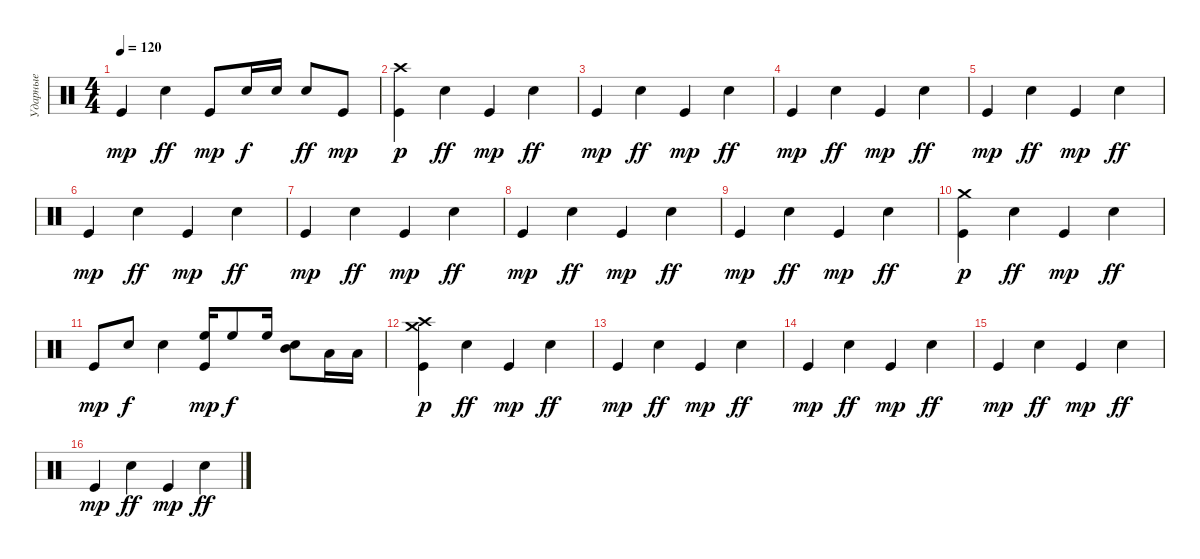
\track ("Ударные" "Ударные") {instrument percussion}
\staff {score}
\articulation defaults
\ts (4 4)
\tempo 120
\clef neutral
\ks c "Kick (hit)".4{dy mp} "Snare (hit) 2".4{dy ff} "Kick (hit)".8{dy mp} "Snare (hit) 2".16{dy f} "Snare (hit) 2".16 "Snare (hit) 2".8{dy ff} "Kick (hit)".8{dy mp}
|
("Kick (hit)" "Crash high (hit)").4{dy p} "Snare (hit) 2".4{dy ff} "Kick (hit)".4{dy mp} "Snare (hit) 2".4{dy ff} |
"Kick (hit)".4{dy mp} "Snare (hit) 2".4{dy ff} "Kick (hit)".4{dy mp} "Snare (hit) 2".4{dy ff} |
"Kick (hit)".4{dy mp} "Snare (hit) 2".4{dy ff} "Kick (hit)".4{dy mp} "Snare (hit) 2".4{dy ff} |
"Kick (hit)".4{dy mp} "Snare (hit) 2".4{dy ff} "Kick (hit)".4{dy mp} "Snare (hit) 2".4{dy ff} |
"Kick (hit)".4{dy mp} "Snare (hit) 2".4{dy ff} "Kick (hit)".4{dy mp} "Snare (hit) 2".4{dy ff} |
"Kick (hit)".4{dy mp} "Snare (hit) 2".4{dy ff} "Kick (hit)".4{dy mp} "Snare (hit) 2".4{dy ff} |
"Kick (hit)".4{dy mp} "Snare (hit) 2".4{dy ff} "Kick (hit)".4{dy mp} "Snare (hit) 2".4{dy ff} |
"Kick (hit)".4{dy mp} "Snare (hit) 2".4{dy ff} "Kick (hit)".4{dy mp} "Snare (hit) 2".4{dy ff} |
("Kick (hit)" "Crash medium (hit)").4{dy p} "Snare (hit) 2".4{dy ff} "Kick (hit)".4{dy mp} "Snare (hit) 2".4{dy ff} |
"Kick (hit)".8{dy mp} "Snare (hit) 2".8{dy f} "Snare (hit) 2".4 ("High Floor Tom (hit)" "Kick (hit)").16{dy mp} "High Floor Tom (hit)".8{dy f} "High Floor Tom (hit)".16 ("Mid Tom (hit)" "Snare (hit) 2").8 "Low Tom (hit)".16 "Low Tom (hit)".16 |
("Kick (hit)" "Crash high (hit)" "Crash medium (hit)").4{dy p} "Snare (hit) 2".4{dy ff} "Kick (hit)".4{dy mp} "Snare (hit) 2".4{dy ff} |
"Kick (hit)".4{dy mp} "Snare (hit) 2".4{dy ff} "Kick (hit)".4{dy mp} "Snare (hit) 2".4{dy ff} |
"Kick (hit)".4{dy mp} "Snare (hit) 2".4{dy ff} "Kick (hit)".4{dy mp} "Snare (hit) 2".4{dy ff} |
"Kick (hit)".4{dy mp} "Snare (hit) 2".4{dy ff} "Kick (hit)".4{dy mp} "Snare (hit) 2".4{dy ff} |
"Kick (hit)".4{dy mp} "Snare (hit) 2".4{dy ff} "Kick (hit)".4{dy mp} "Snare (hit) 2".4{dy ff}
